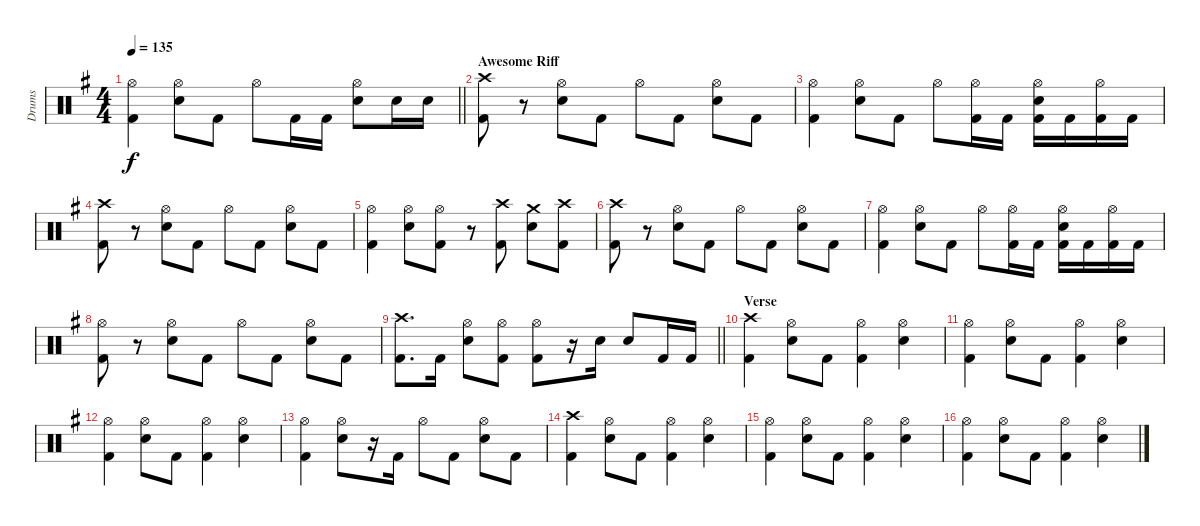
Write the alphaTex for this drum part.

\track ("Drums" "Drums") {instrument percussion}
\staff {score}
\articulation defaults
\ts (4 4)
\tempo 135
\clef neutral
\barLineRight lightlight
\ks g
("Hi-Hat (open)" "Kick (hit) 2").4{dy f} ("Hi-Hat (open)" "Snare (hit) 2").8 "Kick (hit) 2".8 "Hi-Hat (open)".8 "Kick (hit) 2".16 "Kick (hit) 2".16 ("Hi-Hat (open)" "Snare (hit) 2").8 "Snare (hit) 2".16 "Snare (hit) 2".16 |
\section ("" "Awesome Riff")
("Crash high (hit)" "Kick (hit) 2").8 r.8 ("Hi-Hat (open)" "Snare (hit) 2").8 "Kick (hit) 2".8 "Hi-Hat (open)".8 "Kick (hit) 2".8 ("Hi-Hat (open)" "Snare (hit) 2").8 "Kick (hit) 2".8 |
("Hi-Hat (open)" "Kick (hit) 2").4 ("Hi-Hat (open)" "Snare (hit) 2").8 "Kick (hit) 2".8 "Hi-Hat (open)".8 ("Hi-Hat (open)" "Kick (hit) 2").16 "Kick (hit) 2".16 ("Hi-Hat (open)" "Snare (hit) 2" "Kick (hit) 2").16 "Kick (hit) 2".16 ("Hi-Hat (open)" "Kick (hit) 2").16 "Kick (hit) 2".16 |
("Crash high (hit)" "Kick (hit) 2").8 r.8 ("Hi-Hat (open)" "Snare (hit) 2").8 "Kick (hit) 2".8 "Hi-Hat (open)".8 "Kick (hit) 2".8 ("Hi-Hat (open)" "Snare (hit) 2").8 "Kick (hit) 2".8 |
("Hi-Hat (open)" "Kick (hit) 2").4 ("Hi-Hat (open)" "Snare (hit) 2").8 ("Hi-Hat (open)" "Kick (hit) 2").8 r.8 ("Crash high (hit)" "Kick (hit) 2").8 ("Crash medium (hit)" "Snare (hit) 2").8 ("Crash high (hit)" "Kick (hit) 2").8 |
("Crash high (hit)" "Kick (hit) 2").8 r.8 ("Hi-Hat (open)" "Snare (hit) 2").8 "Kick (hit) 2".8 "Hi-Hat (open)".8 "Kick (hit) 2".8 ("Hi-Hat (open)" "Snare (hit) 2").8 "Kick (hit) 2".8 |
("Hi-Hat (open)" "Kick (hit) 2").4 ("Hi-Hat (open)" "Snare (hit) 2").8 "Kick (hit) 2".8 "Hi-Hat (open)".8 ("Hi-Hat (open)" "Kick (hit) 2").16 "Kick (hit) 2".16 ("Hi-Hat (open)" "Snare (hit) 2" "Kick (hit) 2").16 "Kick (hit) 2".16 ("Hi-Hat (open)" "Kick (hit) 2").16 "Kick (hit) 2".16 |
("Hi-Hat (open)" "Kick (hit) 2").8 r.8 ("Hi-Hat (open)" "Snare (hit) 2").8 "Kick (hit) 2".8 "Hi-Hat (open)".8 "Kick (hit) 2".8 ("Hi-Hat (open)" "Snare (hit) 2").8 "Kick (hit) 2".8 |
\barLineRight lightlight
("Crash high (hit)" "Kick (hit) 2").8{d} "Kick (hit) 2".16 ("Hi-Hat (open)" "Snare (hit) 2").8 ("Hi-Hat (open)" "Kick (hit) 2").8 ("Hi-Hat (open)" "Kick (hit) 2").8 r.16 "Snare (hit) 2".16 "Snare (hit) 2".8 "Kick (hit) 2".16 "Kick (hit) 2".16 |
\section ("" "Verse")
("Crash high (hit)" "Kick (hit) 2").4 ("Hi-Hat (open)" "Snare (hit) 2").8 "Kick (hit) 2".8 ("Hi-Hat (open)" "Kick (hit) 2").4 ("Hi-Hat (open)" "Snare (hit) 2").4 |
("Hi-Hat (open)" "Kick (hit) 2").4 ("Hi-Hat (open)" "Snare (hit) 2").8 "Kick (hit) 2".8 ("Hi-Hat (open)" "Kick (hit) 2").4 ("Hi-Hat (open)" "Snare (hit) 2").4 |
("Hi-Hat (open)" "Kick (hit) 2").4 ("Hi-Hat (open)" "Snare (hit) 2").8 "Kick (hit) 2".8 ("Hi-Hat (open)" "Kick (hit) 2").4 ("Hi-Hat (open)" "Snare (hit) 2").4 |
("Hi-Hat (open)" "Kick (hit) 2").4 ("Hi-Hat (open)" "Snare (hit) 2").8 r.16 "Kick (hit) 2".16 "Hi-Hat (open)".8 "Kick (hit) 2".8 ("Hi-Hat (open)" "Snare (hit) 2").8 "Kick (hit) 2".8 |
("Crash high (hit)" "Kick (hit) 2").4 ("Hi-Hat (open)" "Snare (hit) 2").8 "Kick (hit) 2".8 ("Hi-Hat (open)" "Kick (hit) 2").4 ("Hi-Hat (open)" "Snare (hit) 2").4 |
("Hi-Hat (open)" "Kick (hit) 2").4 ("Hi-Hat (open)" "Snare (hit) 2").8 "Kick (hit) 2".8 ("Hi-Hat (open)" "Kick (hit) 2").4 ("Hi-Hat (open)" "Snare (hit) 2").4 |
("Hi-Hat (open)" "Kick (hit) 2").4 ("Hi-Hat (open)" "Snare (hit) 2").8 "Kick (hit) 2".8 ("Hi-Hat (open)" "Kick (hit) 2").4 ("Hi-Hat (open)" "Snare (hit) 2").4
